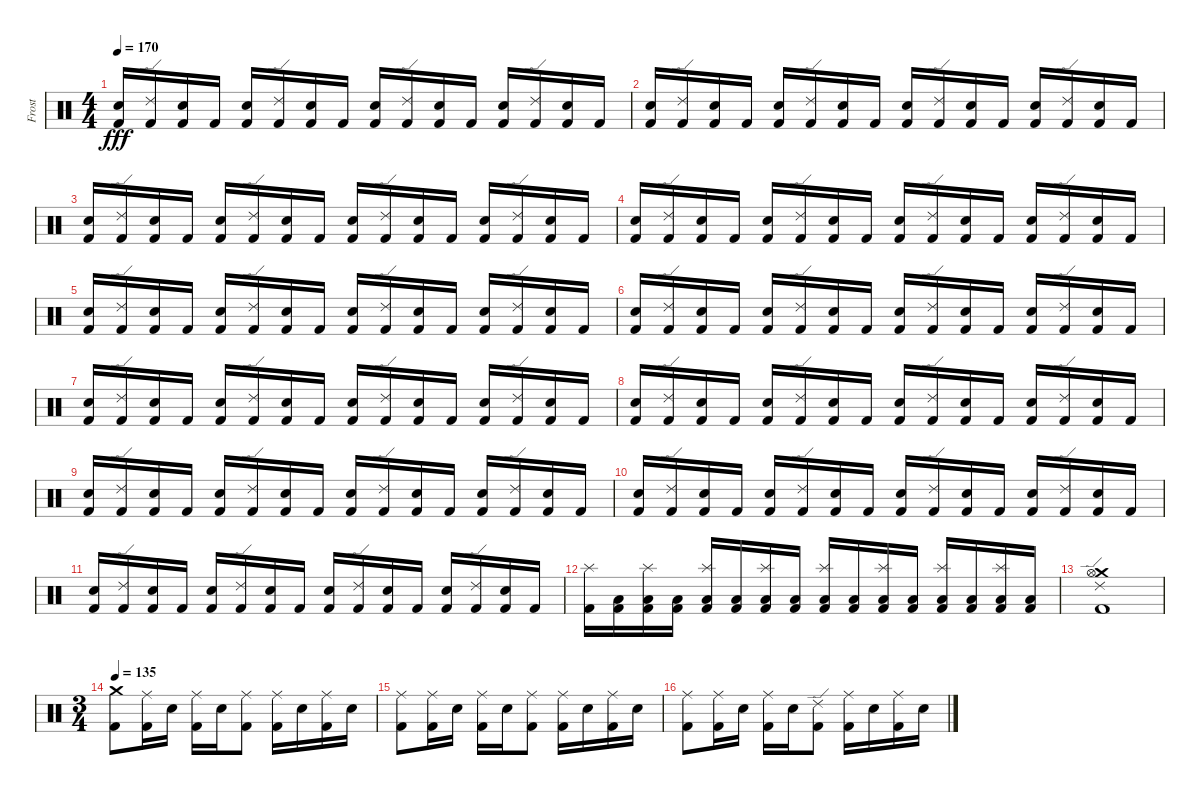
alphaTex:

\track ("Frost" "Frost") {instrument percussion}
\staff {score}
\articulation defaults
\ts (4 4)
\tempo 170
\clef neutral
\ks c
("Electric Snare (hit)" "Kick (hit) 2").16{dy fff} ("Ride (edge) 2" "Kick (hit) 2").16 ("Electric Snare (hit)" "Kick (hit) 2").16 "Kick (hit) 2".16 ("Electric Snare (hit)" "Kick (hit) 2").16 ("Ride (edge) 2" "Kick (hit) 2").16 ("Electric Snare (hit)" "Kick (hit) 2").16 "Kick (hit) 2".16 ("Electric Snare (hit)" "Kick (hit) 2").16 ("Ride (edge) 2" "Kick (hit) 2").16 ("Electric Snare (hit)" "Kick (hit) 2").16 "Kick (hit) 2".16 ("Electric Snare (hit)" "Kick (hit) 2").16 ("Ride (edge) 2" "Kick (hit) 2").16 ("Electric Snare (hit)" "Kick (hit) 2").16 "Kick (hit) 2".16 |
("Electric Snare (hit)" "Kick (hit) 2").16 ("Ride (edge) 2" "Kick (hit) 2").16 ("Electric Snare (hit)" "Kick (hit) 2").16 "Kick (hit) 2".16 ("Electric Snare (hit)" "Kick (hit) 2").16 ("Ride (edge) 2" "Kick (hit) 2").16 ("Electric Snare (hit)" "Kick (hit) 2").16 "Kick (hit) 2".16 ("Electric Snare (hit)" "Kick (hit) 2").16 ("Ride (edge) 2" "Kick (hit) 2").16 ("Electric Snare (hit)" "Kick (hit) 2").16 "Kick (hit) 2".16 ("Electric Snare (hit)" "Kick (hit) 2").16 ("Ride (edge) 2" "Kick (hit) 2").16 ("Electric Snare (hit)" "Kick (hit) 2").16 "Kick (hit) 2".16 |
("Electric Snare (hit)" "Kick (hit) 2").16 ("Ride (edge) 2" "Kick (hit) 2").16 ("Electric Snare (hit)" "Kick (hit) 2").16 "Kick (hit) 2".16 ("Electric Snare (hit)" "Kick (hit) 2").16 ("Ride (edge) 2" "Kick (hit) 2").16 ("Electric Snare (hit)" "Kick (hit) 2").16 "Kick (hit) 2".16 ("Electric Snare (hit)" "Kick (hit) 2").16 ("Ride (edge) 2" "Kick (hit) 2").16 ("Electric Snare (hit)" "Kick (hit) 2").16 "Kick (hit) 2".16 ("Electric Snare (hit)" "Kick (hit) 2").16 ("Ride (edge) 2" "Kick (hit) 2").16 ("Electric Snare (hit)" "Kick (hit) 2").16 "Kick (hit) 2".16 |
("Electric Snare (hit)" "Kick (hit) 2").16 ("Ride (edge) 2" "Kick (hit) 2").16 ("Electric Snare (hit)" "Kick (hit) 2").16 "Kick (hit) 2".16 ("Electric Snare (hit)" "Kick (hit) 2").16 ("Ride (edge) 2" "Kick (hit) 2").16 ("Electric Snare (hit)" "Kick (hit) 2").16 "Kick (hit) 2".16 ("Electric Snare (hit)" "Kick (hit) 2").16 ("Ride (edge) 2" "Kick (hit) 2").16 ("Electric Snare (hit)" "Kick (hit) 2").16 "Kick (hit) 2".16 ("Electric Snare (hit)" "Kick (hit) 2").16 ("Ride (edge) 2" "Kick (hit) 2").16 ("Electric Snare (hit)" "Kick (hit) 2").16 "Kick (hit) 2".16 |
("Electric Snare (hit)" "Kick (hit) 2").16 ("Ride (edge) 2" "Kick (hit) 2").16 ("Electric Snare (hit)" "Kick (hit) 2").16 "Kick (hit) 2".16 ("Electric Snare (hit)" "Kick (hit) 2").16 ("Ride (edge) 2" "Kick (hit) 2").16 ("Electric Snare (hit)" "Kick (hit) 2").16 "Kick (hit) 2".16 ("Electric Snare (hit)" "Kick (hit) 2").16 ("Ride (edge) 2" "Kick (hit) 2").16 ("Electric Snare (hit)" "Kick (hit) 2").16 "Kick (hit) 2".16 ("Electric Snare (hit)" "Kick (hit) 2").16 ("Ride (edge) 2" "Kick (hit) 2").16 ("Electric Snare (hit)" "Kick (hit) 2").16 "Kick (hit) 2".16 |
("Electric Snare (hit)" "Kick (hit) 2").16 ("Ride (edge) 2" "Kick (hit) 2").16 ("Electric Snare (hit)" "Kick (hit) 2").16 "Kick (hit) 2".16 ("Electric Snare (hit)" "Kick (hit) 2").16 ("Ride (edge) 2" "Kick (hit) 2").16 ("Electric Snare (hit)" "Kick (hit) 2").16 "Kick (hit) 2".16 ("Electric Snare (hit)" "Kick (hit) 2").16 ("Ride (edge) 2" "Kick (hit) 2").16 ("Electric Snare (hit)" "Kick (hit) 2").16 "Kick (hit) 2".16 ("Electric Snare (hit)" "Kick (hit) 2").16 ("Ride (edge) 2" "Kick (hit) 2").16 ("Electric Snare (hit)" "Kick (hit) 2").16 "Kick (hit) 2".16 |
("Electric Snare (hit)" "Kick (hit) 2").16 ("Ride (edge) 2" "Kick (hit) 2").16 ("Electric Snare (hit)" "Kick (hit) 2").16 "Kick (hit) 2".16 ("Electric Snare (hit)" "Kick (hit) 2").16 ("Ride (edge) 2" "Kick (hit) 2").16 ("Electric Snare (hit)" "Kick (hit) 2").16 "Kick (hit) 2".16 ("Electric Snare (hit)" "Kick (hit) 2").16 ("Ride (edge) 2" "Kick (hit) 2").16 ("Electric Snare (hit)" "Kick (hit) 2").16 "Kick (hit) 2".16 ("Electric Snare (hit)" "Kick (hit) 2").16 ("Ride (edge) 2" "Kick (hit) 2").16 ("Electric Snare (hit)" "Kick (hit) 2").16 "Kick (hit) 2".16 |
("Electric Snare (hit)" "Kick (hit) 2").16 ("Ride (edge) 2" "Kick (hit) 2").16 ("Electric Snare (hit)" "Kick (hit) 2").16 "Kick (hit) 2".16 ("Electric Snare (hit)" "Kick (hit) 2").16 ("Ride (edge) 2" "Kick (hit) 2").16 ("Electric Snare (hit)" "Kick (hit) 2").16 "Kick (hit) 2".16 ("Electric Snare (hit)" "Kick (hit) 2").16 ("Ride (edge) 2" "Kick (hit) 2").16 ("Electric Snare (hit)" "Kick (hit) 2").16 "Kick (hit) 2".16 ("Electric Snare (hit)" "Kick (hit) 2").16 ("Ride (edge) 2" "Kick (hit) 2").16 ("Electric Snare (hit)" "Kick (hit) 2").16 "Kick (hit) 2".16 |
("Electric Snare (hit)" "Kick (hit) 2").16 ("Ride (edge) 2" "Kick (hit) 2").16 ("Electric Snare (hit)" "Kick (hit) 2").16 "Kick (hit) 2".16 ("Electric Snare (hit)" "Kick (hit) 2").16 ("Ride (edge) 2" "Kick (hit) 2").16 ("Electric Snare (hit)" "Kick (hit) 2").16 "Kick (hit) 2".16 ("Electric Snare (hit)" "Kick (hit) 2").16 ("Ride (edge) 2" "Kick (hit) 2").16 ("Electric Snare (hit)" "Kick (hit) 2").16 "Kick (hit) 2".16 ("Electric Snare (hit)" "Kick (hit) 2").16 ("Ride (edge) 2" "Kick (hit) 2").16 ("Electric Snare (hit)" "Kick (hit) 2").16 "Kick (hit) 2".16 |
("Electric Snare (hit)" "Kick (hit) 2").16 ("Ride (edge) 2" "Kick (hit) 2").16 ("Electric Snare (hit)" "Kick (hit) 2").16 "Kick (hit) 2".16 ("Electric Snare (hit)" "Kick (hit) 2").16 ("Ride (edge) 2" "Kick (hit) 2").16 ("Electric Snare (hit)" "Kick (hit) 2").16 "Kick (hit) 2".16 ("Electric Snare (hit)" "Kick (hit) 2").16 ("Ride (edge) 2" "Kick (hit) 2").16 ("Electric Snare (hit)" "Kick (hit) 2").16 "Kick (hit) 2".16 ("Electric Snare (hit)" "Kick (hit) 2").16 ("Ride (edge) 2" "Kick (hit) 2").16 ("Electric Snare (hit)" "Kick (hit) 2").16 "Kick (hit) 2".16 |
("Electric Snare (hit)" "Kick (hit) 2").16 ("Ride (edge) 2" "Kick (hit) 2").16 ("Electric Snare (hit)" "Kick (hit) 2").16 "Kick (hit) 2".16 ("Electric Snare (hit)" "Kick (hit) 2").16 ("Ride (edge) 2" "Kick (hit) 2").16 ("Electric Snare (hit)" "Kick (hit) 2").16 "Kick (hit) 2".16 ("Electric Snare (hit)" "Kick (hit) 2").16 ("Ride (edge) 2" "Kick (hit) 2").16 ("Electric Snare (hit)" "Kick (hit) 2").16 "Kick (hit) 2".16 ("Electric Snare (hit)" "Kick (hit) 2").16 ("Ride (edge) 2" "Kick (hit) 2").16 ("Electric Snare (hit)" "Kick (hit) 2").16 "Kick (hit) 2".16 |
("Splash (hit)" "Kick (hit) 2").16 ("Low Tom (hit)" "Kick (hit) 2").16 ("Splash (hit)" "Low Tom (hit)" "Kick (hit) 2").16 ("Low Tom (hit)" "Kick (hit) 2").16 ("Splash (hit)" "Low Floor Tom (hit)" "Kick (hit) 2").16 ("Low Floor Tom (hit)" "Kick (hit) 2").16 ("Splash (hit)" "Low Floor Tom (hit)" "Kick (hit) 2").16 ("Low Floor Tom (hit)" "Kick (hit) 2").16 ("Splash (hit)" "Low Floor Tom (hit)" "Kick (hit) 2").16 ("Low Floor Tom (hit)" "Kick (hit) 2").16 ("Splash (hit)" "Low Floor Tom (hit)" "Kick (hit) 2").16 ("Low Floor Tom (hit)" "Kick (hit) 2").16 ("Splash (hit)" "Low Floor Tom (hit)" "Kick (hit) 2").16 ("Low Floor Tom (hit)" "Kick (hit) 2").16 ("Splash (hit)" "Low Floor Tom (hit)" "Kick (hit) 2").16 ("Low Floor Tom (hit)" "Kick (hit) 2").16 |
("Ride (edge) 2" "Crash medium (hit)" "Hi-Hat (open)" "Kick (hit) 2").1 |
\ts (3 4)
\tempo 135
("Crash medium (hit)" "Kick (hit) 2").8 ("Ride (middle)" "Kick (hit) 2").16 "Electric Snare (hit)".16 ("Ride (middle)" "Kick (hit) 2").16 "Electric Snare (hit)".16 ("Ride (middle)" "Kick (hit) 2").8 ("Ride (middle)" "Kick (hit) 2").16 "Electric Snare (hit)".16 ("Ride (middle)" "Kick (hit) 2").16 "Electric Snare (hit)".16 |
("Ride (middle)" "Kick (hit) 2").8 ("Ride (middle)" "Kick (hit) 2").16 "Electric Snare (hit)".16 ("Ride (middle)" "Kick (hit) 2").16 "Electric Snare (hit)".16 ("Ride (middle)" "Kick (hit) 2").8 ("Ride (middle)" "Kick (hit) 2").16 "Electric Snare (hit)".16 ("Ride (middle)" "Kick (hit) 2").16 "Electric Snare (hit)".16 |
("Ride (middle)" "Kick (hit) 2").8 ("Ride (middle)" "Kick (hit) 2").16 "Electric Snare (hit)".16 ("Ride (middle)" "Kick (hit) 2").16 "Electric Snare (hit)".16 ("Ride (edge) 2" "Kick (hit) 2").8 ("Ride (middle)" "Kick (hit) 2").16 "Electric Snare (hit)".16 ("Ride (middle)" "Kick (hit) 2").16 "Electric Snare (hit)".16
